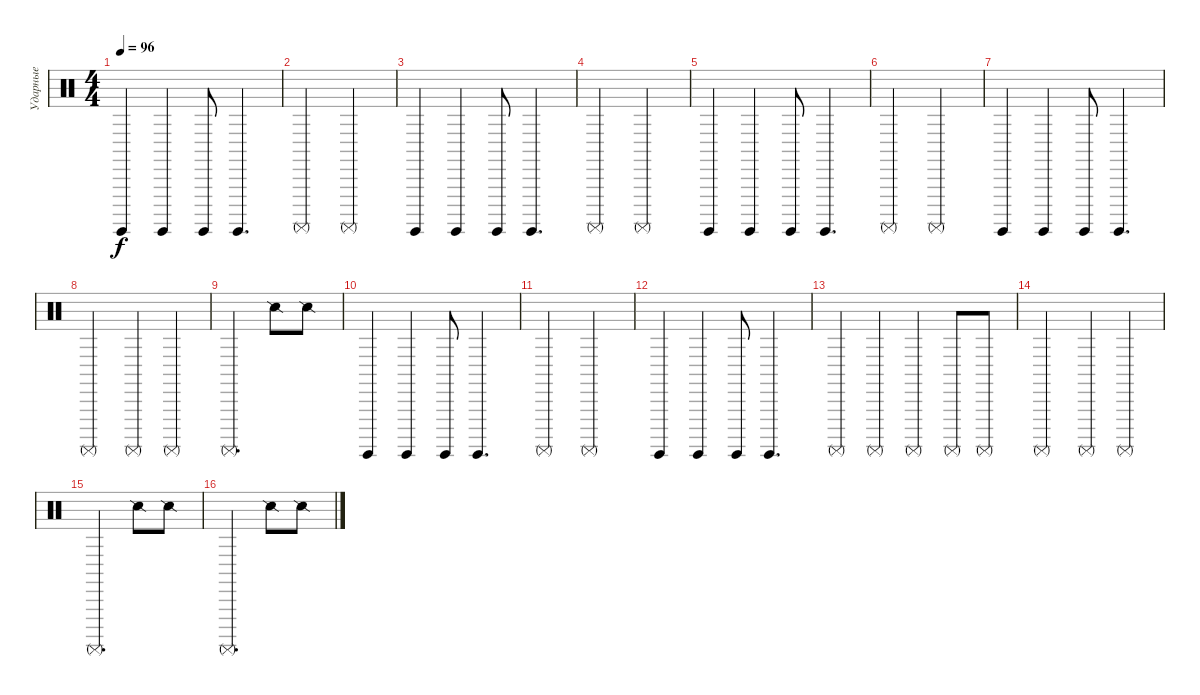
\track ("Ударные" "Ударные") {solo instrument percussion}
\staff {score}
\articulation defaults
\ts (4 4)
\tempo 96
\clef neutral
\ks c "Surdo (hit)".4{dy f} "Surdo (hit)".4 "Surdo (hit)".8 "Surdo (hit)".4{d}
|
"Surdo (mute)".2 "Surdo (mute)".2 |
"Surdo (hit)".4 "Surdo (hit)".4 "Surdo (hit)".8 "Surdo (hit)".4{d} |
"Surdo (mute)".2 "Surdo (mute)".2 |
"Surdo (hit)".4 "Surdo (hit)".4 "Surdo (hit)".8 "Surdo (hit)".4{d} |
"Surdo (mute)".2 "Surdo (mute)".2 |
"Surdo (hit)".4 "Surdo (hit)".4 "Surdo (hit)".8 "Surdo (hit)".4{d} |
"Surdo (mute)".2 "Surdo (mute)".4 "Surdo (mute)".4 |
"Surdo (mute)".2{d} "Snare (side stick) 2".8 "Snare (side stick) 2".8 |
"Surdo (hit)".4 "Surdo (hit)".4 "Surdo (hit)".8 "Surdo (hit)".4{d} |
"Surdo (mute)".2 "Surdo (mute)".2 |
"Surdo (hit)".4 "Surdo (hit)".4 "Surdo (hit)".8 "Surdo (hit)".4{d} |
"Surdo (mute)".4 "Surdo (mute)".4 "Surdo (mute)".4 "Surdo (mute)".8 "Surdo (mute)".8 |
"Surdo (mute)".2 "Surdo (mute)".4 "Surdo (mute)".4 |
"Surdo (mute)".2{d} "Snare (side stick) 2".8 "Snare (side stick) 2".8 |
"Surdo (mute)".2{d} "Snare (side stick) 2".8 "Snare (side stick) 2".8
